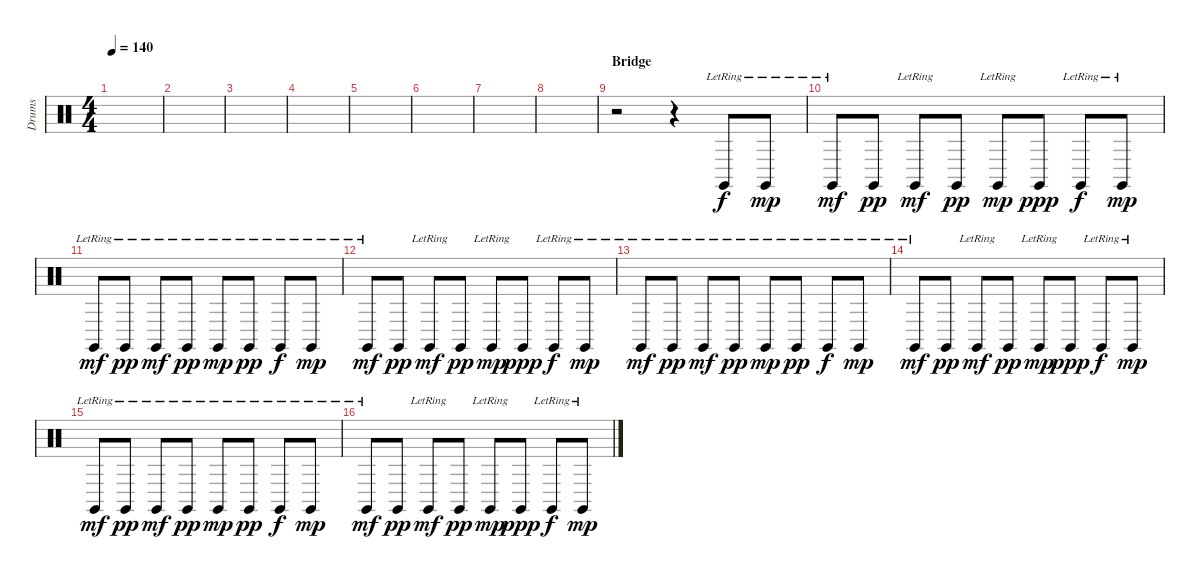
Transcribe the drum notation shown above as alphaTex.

\track ("Drums" "Drums") {instrument percussion}
\staff {score}
\articulation defaults
\ts (4 4)
\tempo 140
\clef neutral
\ks c
|
|
|
|
|
|
|
|
\section ("" "Bridge")
r.2 r.4 "Claves (hit)"{lr}.8{dy f} "Claves (hit)"{lr}.8{dy mp} |
"Claves (hit)"{lr}.8{dy mf} "Claves (hit)".8{dy pp} "Claves (hit)"{lr}.8{dy mf} "Claves (hit)".8{dy pp} "Claves (hit)"{lr}.8{dy mp} "Claves (hit)".8{dy ppp} "Claves (hit)"{lr}.8{dy f} "Claves (hit)"{lr}.8{dy mp} |
"Claves (hit)"{lr}.8{dy mf} "Claves (hit)"{lr}.8{dy pp} "Claves (hit)"{lr}.8{dy mf} "Claves (hit)"{lr}.8{dy pp} "Claves (hit)"{lr}.8{dy mp} "Claves (hit)"{lr}.8{dy pp} "Claves (hit)"{lr}.8{dy f} "Claves (hit)"{lr}.8{dy mp} |
"Claves (hit)"{lr}.8{dy mf} "Claves (hit)".8{dy pp} "Claves (hit)"{lr}.8{dy mf} "Claves (hit)".8{dy pp} "Claves (hit)"{lr}.8{dy mp} "Claves (hit)".8{dy ppp} "Claves (hit)"{lr}.8{dy f} "Claves (hit)"{lr}.8{dy mp} |
"Claves (hit)"{lr}.8{dy mf} "Claves (hit)"{lr}.8{dy pp} "Claves (hit)"{lr}.8{dy mf} "Claves (hit)"{lr}.8{dy pp} "Claves (hit)"{lr}.8{dy mp} "Claves (hit)"{lr}.8{dy pp} "Claves (hit)"{lr}.8{dy f} "Claves (hit)"{lr}.8{dy mp} |
"Claves (hit)"{lr}.8{dy mf} "Claves (hit)".8{dy pp} "Claves (hit)"{lr}.8{dy mf} "Claves (hit)".8{dy pp} "Claves (hit)"{lr}.8{dy mp} "Claves (hit)".8{dy ppp} "Claves (hit)"{lr}.8{dy f} "Claves (hit)"{lr}.8{dy mp} |
"Claves (hit)"{lr}.8{dy mf} "Claves (hit)"{lr}.8{dy pp} "Claves (hit)"{lr}.8{dy mf} "Claves (hit)"{lr}.8{dy pp} "Claves (hit)"{lr}.8{dy mp} "Claves (hit)"{lr}.8{dy pp} "Claves (hit)"{lr}.8{dy f} "Claves (hit)"{lr}.8{dy mp} |
"Claves (hit)"{lr}.8{dy mf} "Claves (hit)".8{dy pp} "Claves (hit)"{lr}.8{dy mf} "Claves (hit)".8{dy pp} "Claves (hit)"{lr}.8{dy mp} "Claves (hit)".8{dy ppp} "Claves (hit)"{lr}.8{dy f} "Claves (hit)"{lr}.8{dy mp}
